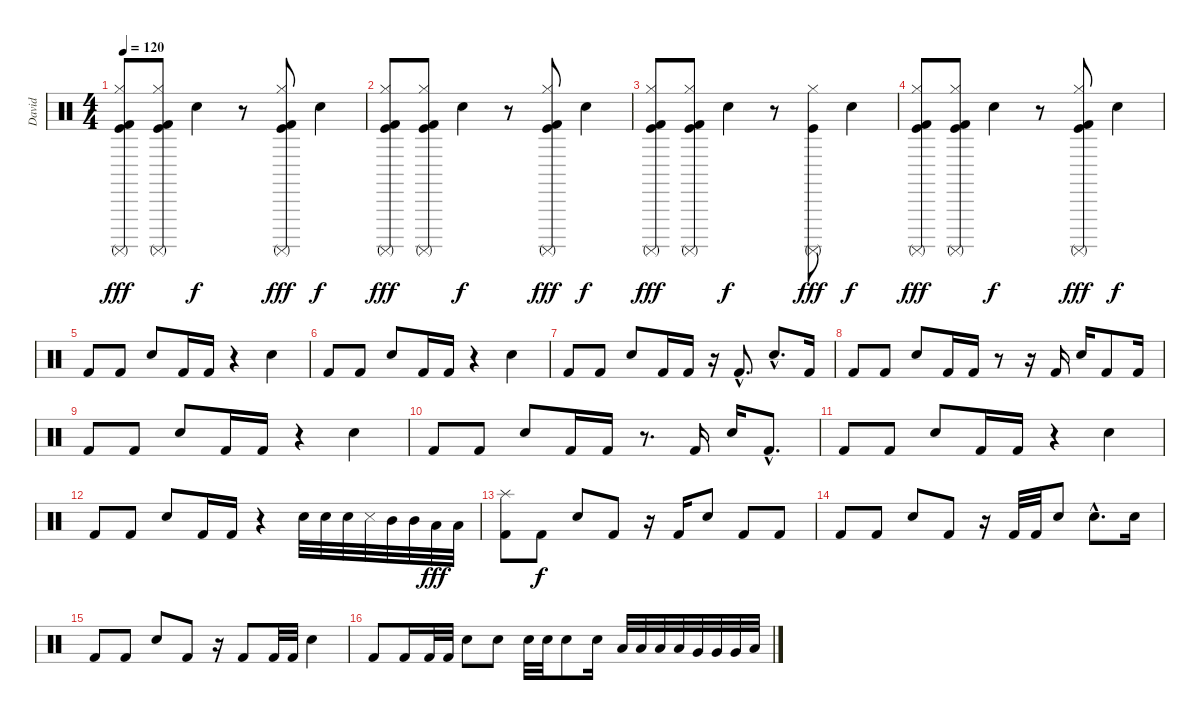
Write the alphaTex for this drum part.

\track ("David " "David ") {instrument percussion}
\staff {score}
\articulation defaults
\ts (4 4)
\tempo 120
\clef neutral
\ks c
("Kick (hit)" "Surdo (mute)" "Hi-Hat (closed)" "Kick (hit) 2").8{dy fff} ("Kick (hit)" "Surdo (mute)" "Hi-Hat (closed)" "Kick (hit) 2").8 "Snare (hit) 2".4{dy f} r.8 ("Kick (hit)" "Surdo (mute)" "Hi-Hat (closed)" "Kick (hit) 2").8{dy fff} "Snare (hit) 2".4{dy f} |
("Kick (hit)" "Surdo (mute)" "Hi-Hat (closed)" "Kick (hit) 2").8{dy fff} ("Kick (hit)" "Surdo (mute)" "Hi-Hat (closed)" "Kick (hit) 2").8 "Snare (hit) 2".4{dy f} r.8 ("Kick (hit)" "Surdo (mute)" "Hi-Hat (closed)" "Kick (hit) 2").8{dy fff} "Snare (hit) 2".4{dy f} |
("Kick (hit)" "Surdo (mute)" "Hi-Hat (closed)" "Kick (hit) 2").8{dy fff} ("Kick (hit)" "Surdo (mute)" "Hi-Hat (closed)" "Kick (hit) 2").8 "Snare (hit) 2".4{dy f} r.8 ("Kick (hit)" "Surdo (mute)" "Hi-Hat (closed)").8{dy fff} "Snare (hit) 2".4{dy f} |
("Kick (hit)" "Surdo (mute)" "Hi-Hat (closed)" "Kick (hit) 2").8{dy fff} ("Kick (hit)" "Surdo (mute)" "Hi-Hat (closed)" "Kick (hit) 2").8 "Snare (hit) 2".4{dy f} r.8 ("Kick (hit)" "Surdo (mute)" "Hi-Hat (closed)" "Kick (hit) 2").8{dy fff} "Snare (hit) 2".4{dy f} |
"Kick (hit) 2".8 "Kick (hit) 2".8 "Snare (hit) 2".8 "Kick (hit) 2".16 "Kick (hit) 2".16 r.4 "Snare (hit) 2".4 |
"Kick (hit) 2".8 "Kick (hit) 2".8 "Snare (hit) 2".8 "Kick (hit) 2".16 "Kick (hit) 2".16 r.4 "Snare (hit) 2".4 |
"Kick (hit) 2".8 "Kick (hit) 2".8 "Snare (hit) 2".8 "Kick (hit) 2".16 "Kick (hit) 2".16 r.16 "Kick (hit) 2"{hac}.8{d} "Snare (hit) 2"{hac}.8{d} "Kick (hit) 2".16 |
"Kick (hit) 2".8 "Kick (hit) 2".8 "Snare (hit) 2".8 "Kick (hit) 2".16 "Kick (hit) 2".16 r.8 r.16 "Kick (hit) 2".16 "Snare (hit) 2".16 "Kick (hit) 2".8 "Kick (hit) 2".16 |
"Kick (hit) 2".8 "Kick (hit) 2".8 "Snare (hit) 2".8 "Kick (hit) 2".16 "Kick (hit) 2".16 r.4 "Snare (hit) 2".4 |
"Kick (hit) 2".8 "Kick (hit) 2".8 "Snare (hit) 2".8 "Kick (hit) 2".16 "Kick (hit) 2".16 r.8{d} "Kick (hit) 2".16 "Snare (hit) 2".16 "Kick (hit) 2"{hac}.8{d} |
"Kick (hit) 2".8 "Kick (hit) 2".8 "Snare (hit) 2".8 "Kick (hit) 2".16 "Kick (hit) 2".16 r.4 "Snare (hit) 2".4 |
"Kick (hit) 2".8 "Kick (hit) 2".8 "Snare (hit) 2".8 "Kick (hit) 2".16 "Kick (hit) 2".16 r.4 "Snare (hit) 2".32 "Snare (hit) 2".32 "Snare (hit) 2".32 "Metronome (hit)".32 "Mid Tom (hit)".32 "Mid Tom (hit)".32 "Low Tom (hit)".32{dy fff} "Low Tom (hit)".32 |
("Splash (hit)" "Kick (hit) 2").8 "Kick (hit) 2".8{dy f} "Snare (hit) 2".8 "Kick (hit) 2".8 r.16 "Kick (hit) 2".16 "Snare (hit) 2".8 "Kick (hit) 2".8 "Kick (hit) 2".8 |
"Kick (hit) 2".8 "Kick (hit) 2".8 "Snare (hit) 2".8 "Kick (hit) 2".8 r.16 "Kick (hit) 2".32 "Kick (hit) 2".32 "Snare (hit) 2".8 "Snare (hit) 2"{hac}.8{d} "Snare (hit) 2".16 |
"Kick (hit) 2".8 "Kick (hit) 2".8 "Snare (hit) 2".8 "Kick (hit) 2".8 r.16 "Kick (hit) 2".8 "Kick (hit) 2".32 "Kick (hit) 2".32 "Snare (hit) 2".4 |
"Kick (hit) 2".8 "Kick (hit) 2".16 "Kick (hit) 2".32 "Kick (hit) 2".32 "Snare (hit) 2".8 "Snare (hit) 2".8 "Snare (hit) 2".32 "Snare (hit) 2".32 "Snare (hit) 2".8 "Snare (hit) 2".16 "Low Tom (hit)".32 "Low Tom (hit)".32 "Low Tom (hit)".32 "Low Tom (hit)".32 "Very Low Tom (hit)".32 "Very Low Tom (hit)".32 "Very Low Tom (hit)".32 "Low Floor Tom (hit)".32
